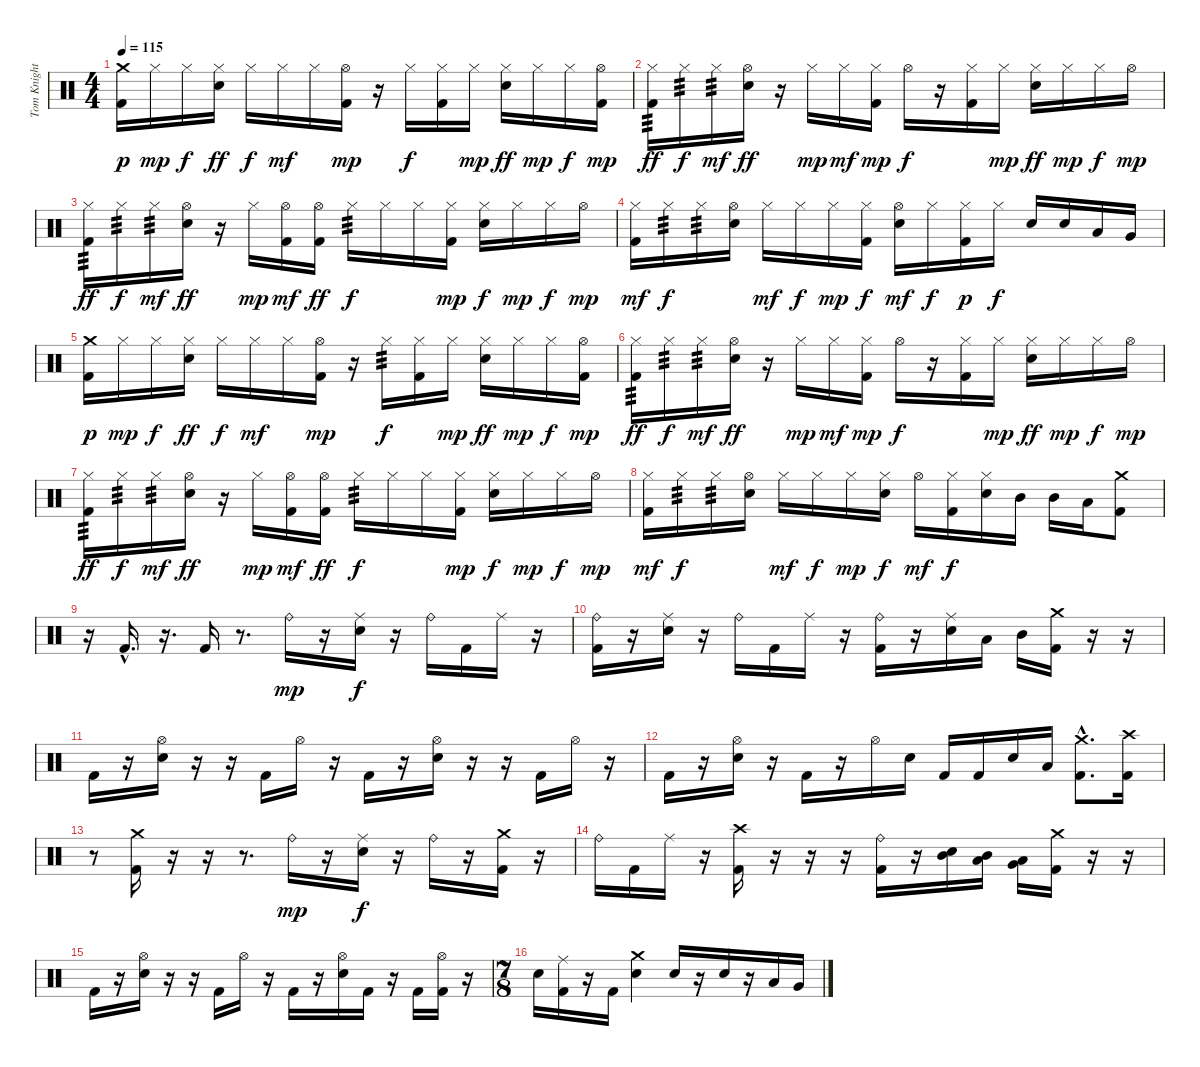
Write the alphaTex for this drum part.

\track ("Tom Knight" "Tom Knight") {instrument percussion}
\staff {score}
\articulation defaults
\ts (4 4)
\section ("" "")
\tempo 115
\clef neutral
\ks c
("Crash medium (hit)" "Kick (hit) 2").16{dy p} "Hi-Hat (closed)".16{dy mp} "Hi-Hat (closed)".16{dy f} ("Hi-Hat (closed)" "Electric Snare (hit)").16{dy ff} "Hi-Hat (closed)".16{dy f} "Hi-Hat (closed)".16{dy mf} "Hi-Hat (closed)".16 ("Hi-Hat (open)" "Kick (hit) 2").16{dy mp} r.16 "Hi-Hat (closed)".16{dy f} ("Hi-Hat (closed)" "Kick (hit) 2").16 "Hi-Hat (closed)".16{dy mp} ("Hi-Hat (closed)" "Electric Snare (hit)").16{dy ff} "Hi-Hat (closed)".16{dy mp} "Hi-Hat (closed)".16{dy f} ("Hi-Hat (open)" "Kick (hit) 2").16{dy mp} |
("Hi-Hat (closed)" "Kick (hit) 2").16{tp 3 dy ff} "Hi-Hat (closed)".16{tp 3 dy f} "Hi-Hat (closed)".16{tp 3 dy mf} ("Hi-Hat (open)" "Electric Snare (hit)").16{dy ff} r.16 "Hi-Hat (closed)".16{dy mp} "Hi-Hat (closed)".16{dy mf} ("Hi-Hat (closed)" "Kick (hit) 2").16{dy mp} "Hi-Hat (open)".16{dy f} r.16 ("Hi-Hat (closed)" "Kick (hit) 2").16 "Hi-Hat (closed)".16{dy mp} ("Hi-Hat (closed)" "Electric Snare (hit)").16{dy ff} "Hi-Hat (closed)".16{dy mp} "Hi-Hat (closed)".16{dy f} "Hi-Hat (open)".16{dy mp} |
("Hi-Hat (closed)" "Kick (hit) 2").16{tp 3 dy ff} "Hi-Hat (closed)".16{tp 3 dy f} "Hi-Hat (closed)".16{tp 3 dy mf} ("Hi-Hat (open)" "Electric Snare (hit)").16{dy ff} r.16 "Hi-Hat (closed)".16{dy mp} ("Hi-Hat (open)" "Kick (hit) 2").16{dy mf} ("Hi-Hat (open)" "Kick (hit) 2").16{dy ff} "Hi-Hat (closed)".16{tp 3 dy f} "Hi-Hat (closed)".16 "Hi-Hat (closed)".16 ("Hi-Hat (closed)" "Kick (hit) 2").16{dy mp} ("Hi-Hat (closed)" "Electric Snare (hit)").16{dy f} "Hi-Hat (closed)".16{dy mp} "Hi-Hat (closed)".16{dy f} "Hi-Hat (open)".16{dy mp} |
("Hi-Hat (closed)" "Kick (hit) 2").16{dy mf} "Hi-Hat (closed)".16{tp 3 dy f} "Hi-Hat (closed)".16{tp 3} ("Hi-Hat (open)" "Electric Snare (hit)").16 "Hi-Hat (closed)".16{dy mf} "Hi-Hat (closed)".16{dy f} "Hi-Hat (closed)".16{dy mp} ("Hi-Hat (closed)" "Kick (hit) 2").16{dy f} ("Hi-Hat (open)" "Electric Snare (hit)").16{dy mf} "Hi-Hat (closed)".16{dy f} ("Hi-Hat (closed)" "Kick (hit) 2").16{dy p} "Hi-Hat (closed)".16{dy f} "Electric Snare (hit)".16 "Electric Snare (hit)".16 "Low Tom (hit)".16 "Very Low Tom (hit)".16 |
("Crash medium (hit)" "Kick (hit) 2").16{dy p} "Hi-Hat (closed)".16{dy mp} "Hi-Hat (closed)".16{dy f} ("Hi-Hat (closed)" "Electric Snare (hit)").16{dy ff} "Hi-Hat (closed)".16{dy f} "Hi-Hat (closed)".16{dy mf} "Hi-Hat (closed)".16 ("Hi-Hat (open)" "Kick (hit) 2").16{dy mp} r.16 "Hi-Hat (closed)".16{tp 3 dy f} ("Hi-Hat (closed)" "Kick (hit) 2").16 "Hi-Hat (closed)".16{dy mp} ("Hi-Hat (closed)" "Electric Snare (hit)").16{dy ff} "Hi-Hat (closed)".16{dy mp} "Hi-Hat (closed)".16{dy f} ("Hi-Hat (open)" "Kick (hit) 2").16{dy mp} |
("Hi-Hat (closed)" "Kick (hit) 2").16{tp 3 dy ff} "Hi-Hat (closed)".16{tp 3 dy f} "Hi-Hat (closed)".16{tp 3 dy mf} ("Hi-Hat (open)" "Electric Snare (hit)").16{dy ff} r.16 "Hi-Hat (closed)".16{dy mp} "Hi-Hat (closed)".16{dy mf} ("Hi-Hat (closed)" "Kick (hit) 2").16{dy mp} "Hi-Hat (open)".16{dy f} r.16 ("Hi-Hat (closed)" "Kick (hit) 2").16 "Hi-Hat (closed)".16{dy mp} ("Hi-Hat (closed)" "Electric Snare (hit)").16{dy ff} "Hi-Hat (closed)".16{dy mp} "Hi-Hat (closed)".16{dy f} "Hi-Hat (open)".16{dy mp} |
("Hi-Hat (closed)" "Kick (hit) 2").16{tp 3 dy ff} "Hi-Hat (closed)".16{tp 3 dy f} "Hi-Hat (closed)".16{tp 3 dy mf} ("Hi-Hat (open)" "Electric Snare (hit)").16{dy ff} r.16 "Hi-Hat (closed)".16{dy mp} ("Hi-Hat (open)" "Kick (hit) 2").16{dy mf} ("Hi-Hat (open)" "Kick (hit) 2").16{dy ff} "Hi-Hat (closed)".16{tp 3 dy f} "Hi-Hat (closed)".16 "Hi-Hat (closed)".16 ("Hi-Hat (closed)" "Kick (hit) 2").16{dy mp} ("Hi-Hat (closed)" "Electric Snare (hit)").16{dy f} "Hi-Hat (closed)".16{dy mp} "Hi-Hat (closed)".16{dy f} "Hi-Hat (open)".16{dy mp} |
("Hi-Hat (closed)" "Kick (hit) 2").16{dy mf} "Hi-Hat (closed)".16{tp 3 dy f} "Hi-Hat (closed)".16{tp 3} ("Hi-Hat (open)" "Electric Snare (hit)").16 "Hi-Hat (closed)".16{dy mf} "Hi-Hat (closed)".16{dy f} "Hi-Hat (closed)".16{dy mp} ("Hi-Hat (closed)" "Electric Snare (hit)").16{dy f} "Hi-Hat (open)".16{dy mf} ("Hi-Hat (closed)" "Kick (hit) 2").16{dy f} ("Hi-Hat (closed)" "Electric Snare (hit)").16 "Mid Tom (hit)".16 "Mid Tom (hit)".16 "Low Tom (hit)".16 ("Crash medium (hit)" "Kick (hit) 2").8 |
\section ("" "")
r.16 "Kick (hit) 2"{hac}.16{d} r.16{d} "Kick (hit) 2".16 r.8{d} "Ride (bell)".16{dy mp} r.16 ("Ride (middle)" "Electric Snare (hit)").16{dy f} r.16 "Ride (bell)".16 "Kick (hit) 2".16 "Ride (middle)".16 r.16 |
("Ride (bell)" "Kick (hit) 2").16 r.16 ("Ride (middle)" "Electric Snare (hit)").16 r.16 "Ride (bell)".16 "Kick (hit) 2".16 "Ride (middle)".16 r.16 ("Ride (bell)" "Kick (hit) 2").16 r.16 ("Ride (middle)" "Electric Snare (hit)").16 "Low Tom (hit)".16 "Mid Tom (hit)".16 ("Crash medium (hit)" "Kick (hit) 2").16 r.16 r.16 |
"Kick (hit) 2".16 r.16 ("Hi-Hat (open)" "Electric Snare (hit)").16 r.16 r.16 "Kick (hit) 2".16 "Hi-Hat (open)".16 r.16 "Kick (hit) 2".16 r.16 ("Hi-Hat (open)" "Electric Snare (hit)").16 r.16 r.16 "Kick (hit) 2".16 "Hi-Hat (open)".16 r.16 |
"Kick (hit) 2".16 r.16 ("Hi-Hat (open)" "Electric Snare (hit)").16 r.16 "Kick (hit) 2".16 r.16 "Hi-Hat (open)".16 "Electric Snare (hit)".16 "Kick (hit) 2".16 "Kick (hit) 2".16 "Electric Snare (hit)".16 "Low Tom (hit)".16 ("Crash medium (hit)"{hac} "Kick (hit) 2"{hac}).8{d} ("Crash high (hit)" "Kick (hit) 2").16 |
r.8 ("Crash medium (hit)" "Kick (hit) 2").16 r.16 r.16 r.8{d} "Ride (bell)".16{dy mp} r.16 ("Ride (middle)" "Electric Snare (hit)").16{dy f} r.16 "Ride (bell)".16 r.16 ("Crash medium (hit)" "Kick (hit) 2").16 r.16 |
"Ride (bell)".16 "Kick (hit) 2".16 "Ride (middle)".16 r.16 ("Crash high (hit)" "Kick (hit) 2").16 r.16 r.16 r.16 ("Ride (bell)" "Kick (hit) 2").16 r.16 ("Mid Tom (hit)" "Electric Snare (hit)").16{bd 480} ("Mid Tom (hit)" "Low Tom (hit)").16{bd 480} ("Low Tom (hit)" "Very Low Tom (hit)").16{bd 480} ("Crash medium (hit)" "Kick (hit) 2").16 r.16 r.16 |
"Kick (hit) 2".16 r.16 ("Hi-Hat (open)" "Electric Snare (hit)").16 r.16 r.16 "Kick (hit) 2".16 "Hi-Hat (open)".16 r.16 "Kick (hit) 2".16 r.16 ("Hi-Hat (open)" "Electric Snare (hit)").16 "Kick (hit) 2".16 r.16 "Kick (hit) 2".16 ("Hi-Hat (open)" "Kick (hit) 2").16 r.16 |
\ts (7 8)
"Electric Snare (hit)".16 ("Ride (middle)" "Kick (hit) 2").16 r.16 "Kick (hit) 2".16 ("Crash medium (hit)" "Electric Snare (hit)").4 "Electric Snare (hit)".16 r.16 "Electric Snare (hit)".16 r.16 "Low Tom (hit)".16 "Very Low Tom (hit)".16
